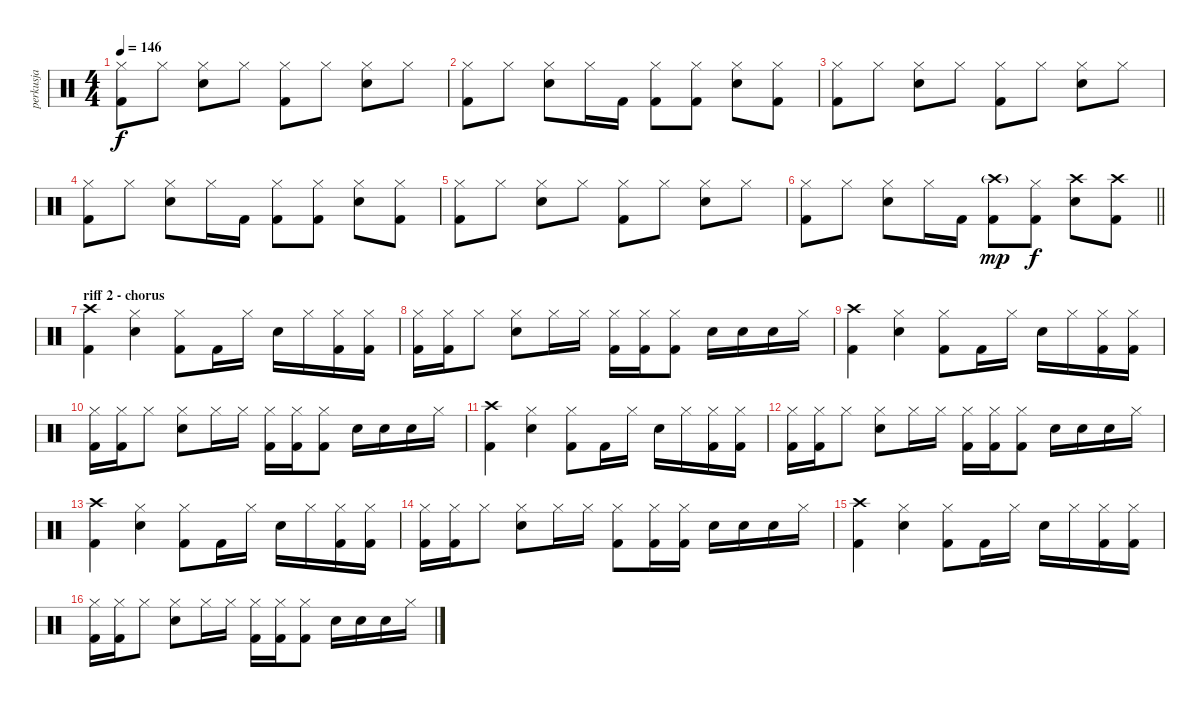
\track ("perkusja" "perkusja") {instrument percussion}
\staff {score}
\articulation defaults
\ts (4 4)
\tempo 146
\clef neutral
\ks c
("Hi-Hat (closed)" "Kick (hit) 2").8{dy f} "Hi-Hat (closed)".8 ("Hi-Hat (closed)" "Electric Snare (hit)").8 "Hi-Hat (closed)".8 ("Hi-Hat (closed)" "Kick (hit) 2").8 "Hi-Hat (closed)".8 ("Hi-Hat (closed)" "Electric Snare (hit)").8 "Hi-Hat (closed)".8 |
("Hi-Hat (closed)" "Kick (hit) 2").8 "Hi-Hat (closed)".8 ("Hi-Hat (closed)" "Electric Snare (hit)").8 "Hi-Hat (closed)".16 "Kick (hit) 2".16 ("Hi-Hat (closed)" "Kick (hit) 2").8 ("Hi-Hat (closed)" "Kick (hit) 2").8 ("Hi-Hat (closed)" "Electric Snare (hit)").8 ("Hi-Hat (closed)" "Kick (hit) 2").8 |
("Hi-Hat (closed)" "Kick (hit) 2").8 "Hi-Hat (closed)".8 ("Hi-Hat (closed)" "Electric Snare (hit)").8 "Hi-Hat (closed)".8 ("Hi-Hat (closed)" "Kick (hit) 2").8 "Hi-Hat (closed)".8 ("Hi-Hat (closed)" "Electric Snare (hit)").8 "Hi-Hat (closed)".8 |
("Hi-Hat (closed)" "Kick (hit) 2").8 "Hi-Hat (closed)".8 ("Hi-Hat (closed)" "Electric Snare (hit)").8 "Hi-Hat (closed)".16 "Kick (hit) 2".16 ("Hi-Hat (closed)" "Kick (hit) 2").8 ("Hi-Hat (closed)" "Kick (hit) 2").8 ("Hi-Hat (closed)" "Electric Snare (hit)").8 ("Hi-Hat (closed)" "Kick (hit) 2").8 |
("Hi-Hat (closed)" "Kick (hit) 2").8 "Hi-Hat (closed)".8 ("Hi-Hat (closed)" "Electric Snare (hit)").8 "Hi-Hat (closed)".8 ("Hi-Hat (closed)" "Kick (hit) 2").8 "Hi-Hat (closed)".8 ("Hi-Hat (closed)" "Electric Snare (hit)").8 "Hi-Hat (closed)".8 |
\barLineRight lightlight
("Hi-Hat (closed)" "Kick (hit) 2").8 "Hi-Hat (closed)".8 ("Hi-Hat (closed)" "Electric Snare (hit)").8 "Hi-Hat (closed)".16 "Kick (hit) 2".16 ("Crash high (hit)"{g} "Kick (hit) 2").8{dy mp} ("Hi-Hat (closed)" "Kick (hit) 2").8{dy f} ("Crash high (hit)" "Electric Snare (hit)").8 ("Crash high (hit)" "Kick (hit) 2").8 |
\section ("" "riff 2 - chorus")
("Crash high (hit)" "Kick (hit) 2").4 ("Hi-Hat (closed)" "Electric Snare (hit)").4 ("Hi-Hat (closed)" "Kick (hit) 2").8 "Kick (hit) 2".16 "Hi-Hat (closed)".16 "Electric Snare (hit)".16 "Hi-Hat (closed)".16 ("Hi-Hat (closed)" "Kick (hit) 2").16 ("Hi-Hat (closed)" "Kick (hit) 2").16 |
("Hi-Hat (closed)" "Kick (hit) 2").16 ("Hi-Hat (closed)" "Kick (hit) 2").16 "Hi-Hat (closed)".8 ("Hi-Hat (closed)" "Electric Snare (hit)").8 "Hi-Hat (closed)".16 "Hi-Hat (closed)".16 ("Hi-Hat (closed)" "Kick (hit) 2").16 ("Hi-Hat (closed)" "Kick (hit) 2").16 ("Hi-Hat (closed)" "Kick (hit) 2").8 "Electric Snare (hit)".16 "Electric Snare (hit)".16 "Electric Snare (hit)".16 "Hi-Hat (closed)".16 |
("Crash high (hit)" "Kick (hit) 2").4 ("Hi-Hat (closed)" "Electric Snare (hit)").4 ("Hi-Hat (closed)" "Kick (hit) 2").8 "Kick (hit) 2".16 "Hi-Hat (closed)".16 "Electric Snare (hit)".16 "Hi-Hat (closed)".16 ("Hi-Hat (closed)" "Kick (hit) 2").16 ("Hi-Hat (closed)" "Kick (hit) 2").16 |
("Hi-Hat (closed)" "Kick (hit) 2").16 ("Hi-Hat (closed)" "Kick (hit) 2").16 "Hi-Hat (closed)".8 ("Hi-Hat (closed)" "Electric Snare (hit)").8 "Hi-Hat (closed)".16 "Hi-Hat (closed)".16 ("Hi-Hat (closed)" "Kick (hit) 2").16 ("Hi-Hat (closed)" "Kick (hit) 2").16 ("Hi-Hat (closed)" "Kick (hit) 2").8 "Electric Snare (hit)".16 "Electric Snare (hit)".16 "Electric Snare (hit)".16 "Hi-Hat (closed)".16 |
("Crash high (hit)" "Kick (hit) 2").4 ("Hi-Hat (closed)" "Electric Snare (hit)").4 ("Hi-Hat (closed)" "Kick (hit) 2").8 "Kick (hit) 2".16 "Hi-Hat (closed)".16 "Electric Snare (hit)".16 "Hi-Hat (closed)".16 ("Hi-Hat (closed)" "Kick (hit) 2").16 ("Hi-Hat (closed)" "Kick (hit) 2").16 |
("Hi-Hat (closed)" "Kick (hit) 2").16 ("Hi-Hat (closed)" "Kick (hit) 2").16 "Hi-Hat (closed)".8 ("Hi-Hat (closed)" "Electric Snare (hit)").8 "Hi-Hat (closed)".16 "Hi-Hat (closed)".16 ("Hi-Hat (closed)" "Kick (hit) 2").16 ("Hi-Hat (closed)" "Kick (hit) 2").16 ("Hi-Hat (closed)" "Kick (hit) 2").8 "Electric Snare (hit)".16 "Electric Snare (hit)".16 "Electric Snare (hit)".16 "Hi-Hat (closed)".16 |
("Crash high (hit)" "Kick (hit) 2").4 ("Hi-Hat (closed)" "Electric Snare (hit)").4 ("Hi-Hat (closed)" "Kick (hit) 2").8 "Kick (hit) 2".16 "Hi-Hat (closed)".16 "Electric Snare (hit)".16 "Hi-Hat (closed)".16 ("Hi-Hat (closed)" "Kick (hit) 2").16 ("Hi-Hat (closed)" "Kick (hit) 2").16 |
("Hi-Hat (closed)" "Kick (hit) 2").16 ("Hi-Hat (closed)" "Kick (hit) 2").16 "Hi-Hat (closed)".8 ("Hi-Hat (closed)" "Electric Snare (hit)").8 "Hi-Hat (closed)".16 "Hi-Hat (closed)".16 ("Hi-Hat (closed)" "Kick (hit) 2").8 ("Hi-Hat (closed)" "Kick (hit) 2").16 ("Hi-Hat (closed)" "Kick (hit) 2").16 "Electric Snare (hit)".16 "Electric Snare (hit)".16 "Electric Snare (hit)".16 "Hi-Hat (closed)".16 |
("Crash high (hit)" "Kick (hit) 2").4 ("Hi-Hat (closed)" "Electric Snare (hit)").4 ("Hi-Hat (closed)" "Kick (hit) 2").8 "Kick (hit) 2".16 "Hi-Hat (closed)".16 "Electric Snare (hit)".16 "Hi-Hat (closed)".16 ("Hi-Hat (closed)" "Kick (hit) 2").16 ("Hi-Hat (closed)" "Kick (hit) 2").16 |
("Hi-Hat (closed)" "Kick (hit) 2").16 ("Hi-Hat (closed)" "Kick (hit) 2").16 "Hi-Hat (closed)".8 ("Hi-Hat (closed)" "Electric Snare (hit)").8 "Hi-Hat (closed)".16 "Hi-Hat (closed)".16 ("Hi-Hat (closed)" "Kick (hit) 2").16 ("Hi-Hat (closed)" "Kick (hit) 2").16 ("Hi-Hat (closed)" "Kick (hit) 2").8 "Electric Snare (hit)".16 "Electric Snare (hit)".16 "Electric Snare (hit)".16 "Hi-Hat (closed)".16
